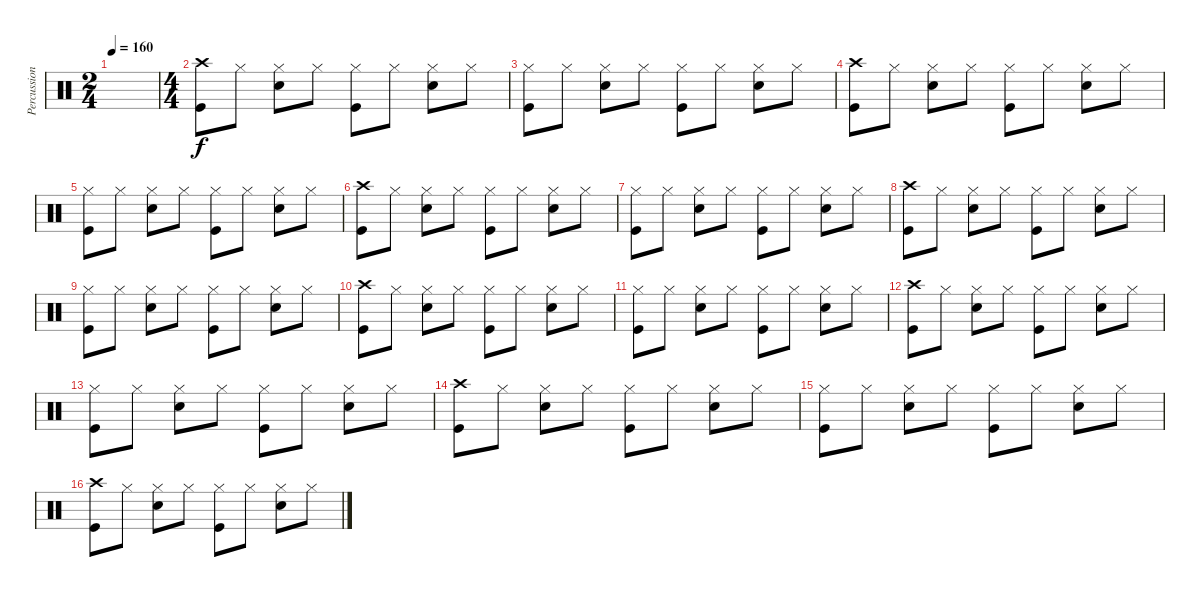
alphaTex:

\track ("Percussion" "Percussion") {instrument percussion}
\staff {score}
\articulation defaults
\ts (2 4)
\tempo 160
\clef neutral
\ks c
|
\ts (4 4)
("Crash high (hit)" "Kick (hit)").8 "Hi-Hat (closed)".8 ("Hi-Hat (closed)" "Snare (hit) 2").8 "Hi-Hat (closed)".8 ("Hi-Hat (closed)" "Kick (hit)").8 "Hi-Hat (closed)".8 ("Hi-Hat (closed)" "Snare (hit) 2").8 "Hi-Hat (closed)".8 |
("Hi-Hat (closed)" "Kick (hit)").8 "Hi-Hat (closed)".8 ("Hi-Hat (closed)" "Snare (hit) 2").8 "Hi-Hat (closed)".8 ("Hi-Hat (closed)" "Kick (hit)").8 "Hi-Hat (closed)".8 ("Hi-Hat (closed)" "Snare (hit) 2").8 "Hi-Hat (closed)".8 |
("Crash high (hit)" "Kick (hit)").8 "Hi-Hat (closed)".8 ("Hi-Hat (closed)" "Snare (hit) 2").8 "Hi-Hat (closed)".8 ("Hi-Hat (closed)" "Kick (hit)").8 "Hi-Hat (closed)".8 ("Hi-Hat (closed)" "Snare (hit) 2").8 "Hi-Hat (closed)".8 |
("Hi-Hat (closed)" "Kick (hit)").8 "Hi-Hat (closed)".8 ("Hi-Hat (closed)" "Snare (hit) 2").8 "Hi-Hat (closed)".8 ("Hi-Hat (closed)" "Kick (hit)").8 "Hi-Hat (closed)".8 ("Hi-Hat (closed)" "Snare (hit) 2").8 "Hi-Hat (closed)".8 |
("Crash high (hit)" "Kick (hit)").8 "Hi-Hat (closed)".8 ("Hi-Hat (closed)" "Snare (hit) 2").8 "Hi-Hat (closed)".8 ("Hi-Hat (closed)" "Kick (hit)").8 "Hi-Hat (closed)".8 ("Hi-Hat (closed)" "Snare (hit) 2").8 "Hi-Hat (closed)".8 |
("Hi-Hat (closed)" "Kick (hit)").8 "Hi-Hat (closed)".8 ("Hi-Hat (closed)" "Snare (hit) 2").8 "Hi-Hat (closed)".8 ("Hi-Hat (closed)" "Kick (hit)").8 "Hi-Hat (closed)".8 ("Hi-Hat (closed)" "Snare (hit) 2").8 "Hi-Hat (closed)".8 |
("Crash high (hit)" "Kick (hit)").8 "Hi-Hat (closed)".8 ("Hi-Hat (closed)" "Snare (hit) 2").8 "Hi-Hat (closed)".8 ("Hi-Hat (closed)" "Kick (hit)").8 "Hi-Hat (closed)".8 ("Hi-Hat (closed)" "Snare (hit) 2").8 "Hi-Hat (closed)".8 |
("Hi-Hat (closed)" "Kick (hit)").8 "Hi-Hat (closed)".8 ("Hi-Hat (closed)" "Snare (hit) 2").8 "Hi-Hat (closed)".8 ("Hi-Hat (closed)" "Kick (hit)").8 "Hi-Hat (closed)".8 ("Hi-Hat (closed)" "Snare (hit) 2").8 "Hi-Hat (closed)".8 |
("Crash high (hit)" "Kick (hit)").8 "Hi-Hat (closed)".8 ("Hi-Hat (closed)" "Snare (hit) 2").8 "Hi-Hat (closed)".8 ("Hi-Hat (closed)" "Kick (hit)").8 "Hi-Hat (closed)".8 ("Hi-Hat (closed)" "Snare (hit) 2").8 "Hi-Hat (closed)".8 |
("Hi-Hat (closed)" "Kick (hit)").8 "Hi-Hat (closed)".8 ("Hi-Hat (closed)" "Snare (hit) 2").8 "Hi-Hat (closed)".8 ("Hi-Hat (closed)" "Kick (hit)").8 "Hi-Hat (closed)".8 ("Hi-Hat (closed)" "Snare (hit) 2").8 "Hi-Hat (closed)".8 |
("Crash high (hit)" "Kick (hit)").8 "Hi-Hat (closed)".8 ("Hi-Hat (closed)" "Snare (hit) 2").8 "Hi-Hat (closed)".8 ("Hi-Hat (closed)" "Kick (hit)").8 "Hi-Hat (closed)".8 ("Hi-Hat (closed)" "Snare (hit) 2").8 "Hi-Hat (closed)".8 |
("Hi-Hat (closed)" "Kick (hit)").8 "Hi-Hat (closed)".8 ("Hi-Hat (closed)" "Snare (hit) 2").8 "Hi-Hat (closed)".8 ("Hi-Hat (closed)" "Kick (hit)").8 "Hi-Hat (closed)".8 ("Hi-Hat (closed)" "Snare (hit) 2").8 "Hi-Hat (closed)".8 |
("Crash high (hit)" "Kick (hit)").8 "Hi-Hat (closed)".8 ("Hi-Hat (closed)" "Snare (hit) 2").8 "Hi-Hat (closed)".8 ("Hi-Hat (closed)" "Kick (hit)").8 "Hi-Hat (closed)".8 ("Hi-Hat (closed)" "Snare (hit) 2").8 "Hi-Hat (closed)".8 |
("Hi-Hat (closed)" "Kick (hit)").8 "Hi-Hat (closed)".8 ("Hi-Hat (closed)" "Snare (hit) 2").8 "Hi-Hat (closed)".8 ("Hi-Hat (closed)" "Kick (hit)").8 "Hi-Hat (closed)".8 ("Hi-Hat (closed)" "Snare (hit) 2").8 "Hi-Hat (closed)".8 |
("Crash high (hit)" "Kick (hit)").8 "Hi-Hat (closed)".8 ("Hi-Hat (closed)" "Snare (hit) 2").8 "Hi-Hat (closed)".8 ("Hi-Hat (closed)" "Kick (hit)").8 "Hi-Hat (closed)".8 ("Hi-Hat (closed)" "Snare (hit) 2").8 "Hi-Hat (closed)".8
